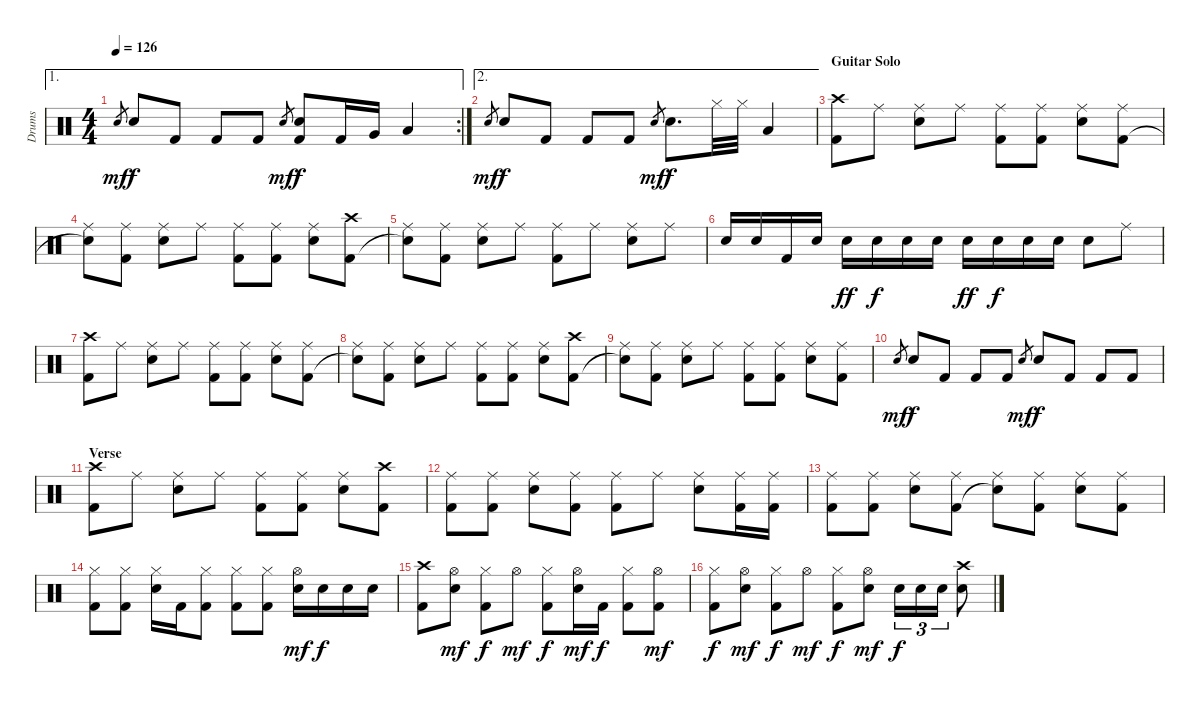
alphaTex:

\track ("Drums" "Drums") {instrument percussion}
\staff {score}
\articulation defaults
\ae 1
\rc 2
\ts (4 4)
\tempo 126
\clef neutral
\ks c "Electric Snare (hit)".8{gr dy mf} "Electric Snare (hit)".8{dy f} "Kick (hit) 2".8 "Kick (hit) 2".8 "Kick (hit) 2".8 "Electric Snare (hit)".8{gr dy mf}
("Electric Snare (hit)" "Kick (hit) 2").8{dy f} "Kick (hit) 2".16 "Very Low Tom (hit)".16 "Low Tom (hit)".4 |
\ae 2 "Electric Snare (hit)".8{gr dy mf} "Electric Snare (hit)".8{dy f} "Kick (hit) 2".8 "Kick (hit) 2".8 "Kick (hit) 2".8 "Electric Snare (hit)".8{gr dy mf} "Electric Snare (hit)".8{d dy f} "Hi-Hat (closed)".32 "Hi-Hat (closed)".32 "Low Tom (hit)".4
|
\section ("" "Guitar Solo")
("Crash high (hit)" "Kick (hit) 2").8 "Ride (middle)".8 ("Ride (middle)" "Electric Snare (hit)").8 "Ride (middle)".8 ("Ride (middle)" "Kick (hit) 2").8 ("Ride (middle)" "Kick (hit) 2").8 ("Ride (middle)" "Electric Snare (hit)").8 ("Ride (middle)" "Kick (hit) 2").8 |
("Ride (middle)" "Snare (hit)"{t}).8 ("Ride (middle)" "Kick (hit) 2").8 ("Ride (middle)" "Electric Snare (hit)").8 "Ride (middle)".8 ("Ride (middle)" "Kick (hit) 2").8 ("Ride (middle)" "Kick (hit) 2").8 ("Ride (middle)" "Electric Snare (hit)").8 ("Crash high (hit)" "Kick (hit) 2").8 |
("Ride (middle)" "Snare (hit)"{t}).8 ("Ride (middle)" "Kick (hit) 2").8 ("Ride (middle)" "Electric Snare (hit)").8 "Ride (middle)".8 ("Ride (middle)" "Kick (hit) 2").8 "Ride (middle)".8 ("Ride (middle)" "Electric Snare (hit)").8 "Ride (middle)".8 |
"Electric Snare (hit)".16 "Electric Snare (hit)".16 "Kick (hit) 2".16 "Electric Snare (hit)".16 "Electric Snare (hit)".16{dy ff} "Electric Snare (hit)".16{dy f} "Electric Snare (hit)".16 "Electric Snare (hit)".16 "Electric Snare (hit)".16{dy ff} "Electric Snare (hit)".16{dy f} "Electric Snare (hit)".16 "Electric Snare (hit)".16 "Electric Snare (hit)".8 "Ride (middle)".8 |
("Crash high (hit)" "Kick (hit) 2").8 "Ride (middle)".8 ("Ride (middle)" "Electric Snare (hit)").8 "Ride (middle)".8 ("Ride (middle)" "Kick (hit) 2").8 ("Ride (middle)" "Kick (hit) 2").8 ("Ride (middle)" "Electric Snare (hit)").8 ("Ride (middle)" "Kick (hit) 2").8 |
("Ride (middle)" "Snare (hit)"{t}).8 ("Ride (middle)" "Kick (hit) 2").8 ("Ride (middle)" "Electric Snare (hit)").8 "Ride (middle)".8 ("Ride (middle)" "Kick (hit) 2").8 ("Ride (middle)" "Kick (hit) 2").8 ("Ride (middle)" "Electric Snare (hit)").8 ("Crash high (hit)" "Kick (hit) 2").8 |
("Ride (middle)" "Snare (hit)"{t}).8 ("Ride (middle)" "Kick (hit) 2").8 ("Ride (middle)" "Electric Snare (hit)").8 "Ride (middle)".8 ("Ride (middle)" "Kick (hit) 2").8 ("Ride (middle)" "Kick (hit) 2").8 ("Ride (middle)" "Electric Snare (hit)").8 ("Ride (middle)" "Kick (hit) 2").8 |
"Electric Snare (hit)".8{gr dy mf} "Electric Snare (hit)".8{dy f} "Kick (hit) 2".8 "Kick (hit) 2".8 "Kick (hit) 2".8 "Electric Snare (hit)".8{gr dy mf} "Electric Snare (hit)".8{dy f} "Kick (hit) 2".8 "Kick (hit) 2".8 "Kick (hit) 2".8 |
\section ("" "Verse")
("Crash high (hit)" "Kick (hit) 2").8 "Ride (middle)".8 ("Ride (middle)" "Electric Snare (hit)").8 "Ride (middle)".8 ("Ride (middle)" "Kick (hit) 2").8 ("Ride (middle)" "Kick (hit) 2").8 ("Ride (middle)" "Electric Snare (hit)").8 ("Crash high (hit)" "Kick (hit) 2").8 |
("Ride (middle)" "Kick (hit) 2").8 ("Ride (middle)" "Kick (hit) 2").8 ("Ride (middle)" "Electric Snare (hit)").8 ("Ride (middle)" "Kick (hit) 2").8 ("Ride (middle)" "Kick (hit) 2").8 "Ride (middle)".8 ("Ride (middle)" "Electric Snare (hit)").8 ("Ride (middle)" "Kick (hit) 2").16 ("Ride (middle)" "Kick (hit) 2").16 |
("Ride (middle)" "Kick (hit) 2").8 ("Ride (middle)" "Kick (hit) 2").8 ("Ride (middle)" "Electric Snare (hit)").8 ("Ride (middle)" "Kick (hit) 2").8 ("Ride (middle)" "Snare (hit)"{t}).8 ("Ride (middle)" "Kick (hit) 2").8 ("Ride (middle)" "Electric Snare (hit)").8 ("Ride (middle)" "Kick (hit) 2").8 |
("Hi-Hat (closed)" "Kick (hit) 2").8 ("Hi-Hat (closed)" "Kick (hit) 2").8 ("Hi-Hat (closed)" "Electric Snare (hit)").16 "Kick (hit) 2".16 ("Hi-Hat (closed)" "Kick (hit) 2").8 ("Hi-Hat (closed)" "Kick (hit) 2").8 ("Hi-Hat (closed)" "Kick (hit) 2").8 ("Hi-Hat (open)" "Electric Snare (hit)").16{dy mf} "Electric Snare (hit)".16{dy f} "Electric Snare (hit)".16 "Electric Snare (hit)".16 |
("Crash high (hit)" "Kick (hit) 2").8 ("Hi-Hat (open)" "Electric Snare (hit)").8{dy mf} ("Hi-Hat (closed)" "Kick (hit) 2").8{dy f} "Hi-Hat (open)".8{dy mf} ("Hi-Hat (closed)" "Kick (hit) 2").8{dy f} ("Hi-Hat (open)" "Electric Snare (hit)").16{dy mf} "Kick (hit) 2".16{dy f} ("Hi-Hat (closed)" "Kick (hit) 2").8 ("Hi-Hat (open)" "Kick (hit) 2").8{dy mf} |
("Hi-Hat (closed)" "Kick (hit) 2").8{dy f} ("Hi-Hat (open)" "Electric Snare (hit)").8{dy mf} ("Hi-Hat (closed)" "Kick (hit) 2").8{dy f} "Hi-Hat (open)".8{dy mf} ("Hi-Hat (closed)" "Kick (hit) 2").8{dy f} ("Hi-Hat (open)" "Electric Snare (hit)").8{dy mf} "Electric Snare (hit)".16{tu (3 2) dy f} "Electric Snare (hit)".16{tu (3 2)} "Electric Snare (hit)".16{tu (3 2)} ("Crash high (hit)" "Electric Snare (hit)").8
